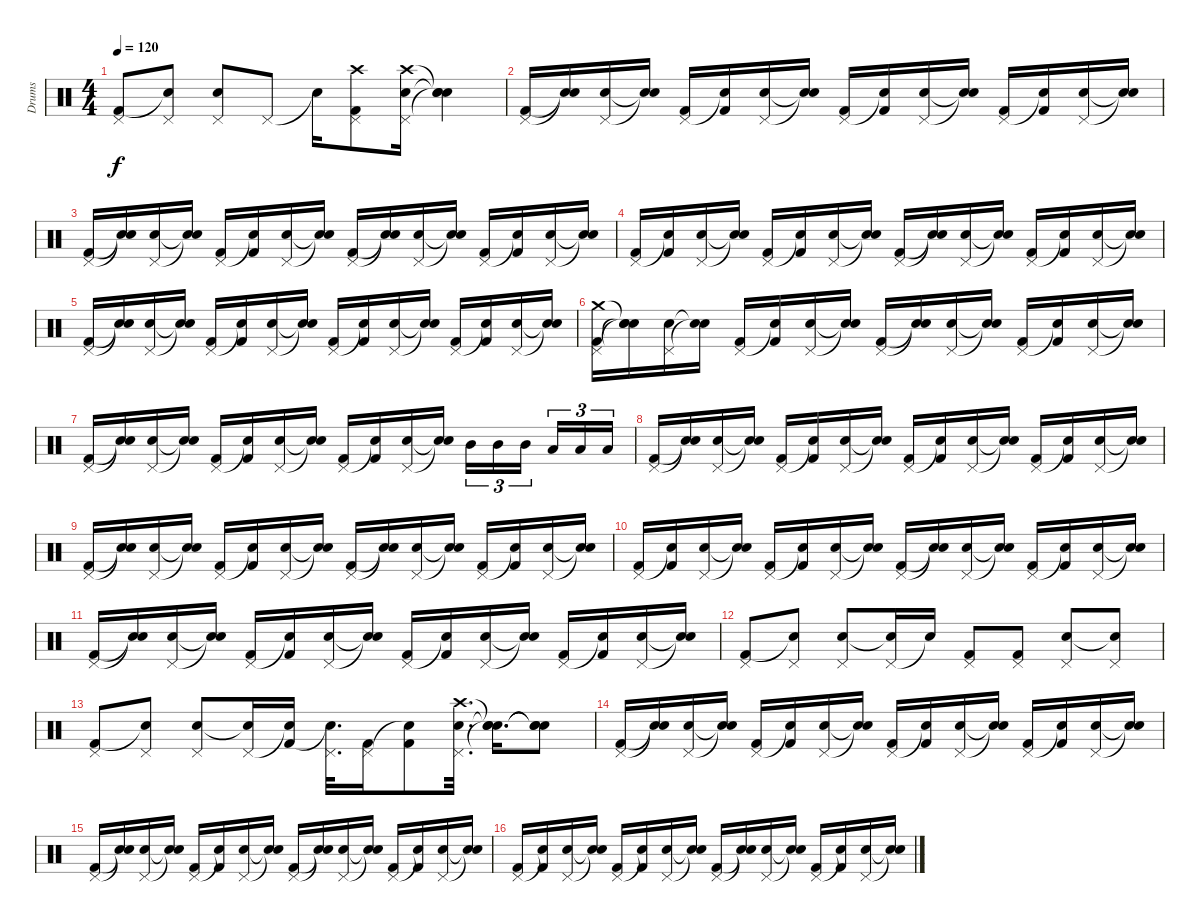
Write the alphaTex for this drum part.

\track ("Drums" "Drums") {instrument percussion}
\staff {score}
\articulation defaults
\ts (4 4)
\tempo 120
\clef neutral
\ks c
("Pedal Hi-Hat (hit)" "Kick (hit) 2").8{dy f} ("Pedal Hi-Hat (hit)" "Snare (hit)"{t}).8 ("Pedal Hi-Hat (hit)" "Snare (hit) 2").8 "Pedal Hi-Hat (hit)".8 "Snare (hit)"{t}.16 ("Pedal Hi-Hat (hit)" "Crash high (hit)" "Kick (hit) 2").8 ("Pedal Hi-Hat (hit)" "Crash high (hit)" "Snare (hit) 2").16 ("Snare (hit)"{t} "Snare (hit)"{t} "Snare (hit)"{t}).4 |
("Pedal Hi-Hat (hit)" "Kick (hit) 2").16 ("Snare (hit)"{t} "Snare (hit)"{t}).16 ("Pedal Hi-Hat (hit)" "Snare (hit) 2").16 ("Snare (hit)"{t} "Snare (hit)"{t}).16 ("Pedal Hi-Hat (hit)" "Kick (hit) 2").16 ("Snare (hit)"{t} "Kick (hit) 2").16 ("Pedal Hi-Hat (hit)" "Snare (hit) 2").16 ("Snare (hit)"{t} "Snare (hit)"{t}).16 ("Pedal Hi-Hat (hit)" "Kick (hit) 2").16 ("Snare (hit)"{t} "Kick (hit) 2").16 ("Pedal Hi-Hat (hit)" "Snare (hit) 2").16 ("Snare (hit)"{t} "Snare (hit)"{t}).16 ("Pedal Hi-Hat (hit)" "Kick (hit) 2").16 ("Snare (hit)"{t} "Kick (hit) 2").16 ("Pedal Hi-Hat (hit)" "Snare (hit) 2").16 ("Snare (hit)"{t} "Snare (hit)"{t}).16 |
("Pedal Hi-Hat (hit)" "Kick (hit) 2").16 ("Snare (hit)"{t} "Snare (hit)"{t}).16 ("Pedal Hi-Hat (hit)" "Snare (hit) 2").16 ("Snare (hit)"{t} "Snare (hit)"{t}).16 ("Pedal Hi-Hat (hit)" "Kick (hit) 2").16 ("Snare (hit)"{t} "Kick (hit) 2").16 ("Pedal Hi-Hat (hit)" "Snare (hit) 2").16 ("Snare (hit)"{t} "Snare (hit)"{t}).16 ("Pedal Hi-Hat (hit)" "Kick (hit) 2").16 ("Snare (hit)"{t} "Snare (hit)"{t}).16 ("Pedal Hi-Hat (hit)" "Snare (hit) 2").16 ("Snare (hit)"{t} "Snare (hit)"{t}).16 ("Pedal Hi-Hat (hit)" "Kick (hit) 2").16 ("Snare (hit)"{t} "Kick (hit) 2").16 ("Pedal Hi-Hat (hit)" "Snare (hit) 2").16 ("Snare (hit)"{t} "Snare (hit)"{t}).16 |
("Pedal Hi-Hat (hit)" "Kick (hit) 2").16 ("Snare (hit)"{t} "Kick (hit) 2").16 ("Pedal Hi-Hat (hit)" "Snare (hit) 2").16 ("Snare (hit)"{t} "Snare (hit)"{t}).16 ("Pedal Hi-Hat (hit)" "Kick (hit) 2").16 ("Snare (hit)"{t} "Kick (hit) 2").16 ("Pedal Hi-Hat (hit)" "Snare (hit) 2").16 ("Snare (hit)"{t} "Snare (hit)"{t}).16 ("Pedal Hi-Hat (hit)" "Kick (hit) 2").16 ("Snare (hit)"{t} "Snare (hit)"{t}).16 ("Pedal Hi-Hat (hit)" "Snare (hit) 2").16 ("Snare (hit)"{t} "Snare (hit)"{t}).16 ("Pedal Hi-Hat (hit)" "Kick (hit) 2").16 ("Snare (hit)"{t} "Kick (hit) 2").16 ("Pedal Hi-Hat (hit)" "Snare (hit) 2").16 ("Snare (hit)"{t} "Snare (hit)"{t}).16 |
("Pedal Hi-Hat (hit)" "Kick (hit) 2").16 ("Snare (hit)"{t} "Snare (hit)"{t}).16 ("Pedal Hi-Hat (hit)" "Snare (hit) 2").16 ("Snare (hit)"{t} "Snare (hit)"{t}).16 ("Pedal Hi-Hat (hit)" "Kick (hit) 2").16 ("Snare (hit)"{t} "Kick (hit) 2").16 ("Pedal Hi-Hat (hit)" "Snare (hit) 2").16 ("Snare (hit)"{t} "Snare (hit)"{t}).16 ("Pedal Hi-Hat (hit)" "Kick (hit) 2").16 ("Snare (hit)"{t} "Kick (hit) 2").16 ("Pedal Hi-Hat (hit)" "Snare (hit) 2").16 ("Snare (hit)"{t} "Snare (hit)"{t}).16 ("Pedal Hi-Hat (hit)" "Kick (hit) 2").16 ("Snare (hit)"{t} "Kick (hit) 2").16 ("Pedal Hi-Hat (hit)" "Snare (hit) 2").16 ("Snare (hit)"{t} "Snare (hit)"{t}).16 |
("Pedal Hi-Hat (hit)" "Crash medium (hit)" "Kick (hit) 2").16 ("Snare (hit)"{t} "Snare (hit)"{t} "Snare (hit)"{t}).16 ("Pedal Hi-Hat (hit)" "Snare (hit) 2").16 ("Snare (hit)"{t} "Snare (hit)"{t}).16 ("Pedal Hi-Hat (hit)" "Kick (hit) 2").16 ("Snare (hit)"{t} "Kick (hit) 2").16 ("Pedal Hi-Hat (hit)" "Snare (hit) 2").16 ("Snare (hit)"{t} "Snare (hit)"{t}).16 ("Pedal Hi-Hat (hit)" "Kick (hit) 2").16 ("Snare (hit)"{t} "Snare (hit)"{t}).16 ("Pedal Hi-Hat (hit)" "Snare (hit) 2").16 ("Snare (hit)"{t} "Snare (hit)"{t}).16 ("Pedal Hi-Hat (hit)" "Kick (hit) 2").16 ("Snare (hit)"{t} "Kick (hit) 2").16 ("Pedal Hi-Hat (hit)" "Snare (hit) 2").16 ("Snare (hit)"{t} "Snare (hit)"{t}).16 |
("Pedal Hi-Hat (hit)" "Kick (hit) 2").16 ("Snare (hit)"{t} "Snare (hit)"{t}).16 ("Pedal Hi-Hat (hit)" "Snare (hit) 2").16 ("Snare (hit)"{t} "Snare (hit)"{t}).16 ("Pedal Hi-Hat (hit)" "Kick (hit) 2").16 ("Snare (hit)"{t} "Kick (hit) 2").16 ("Pedal Hi-Hat (hit)" "Snare (hit) 2").16 ("Snare (hit)"{t} "Snare (hit)"{t}).16 ("Pedal Hi-Hat (hit)" "Kick (hit) 2").16 ("Snare (hit)"{t} "Kick (hit) 2").16 ("Pedal Hi-Hat (hit)" "Snare (hit) 2").16 ("Snare (hit)"{t} "Snare (hit)"{t}).16 "Mid Tom (hit)".16{tu (3 2)} "Mid Tom (hit)".16{tu (3 2)} "Mid Tom (hit)".16{tu (3 2)} "Low Tom (hit)".16{tu (3 2)} "Low Tom (hit)".16{tu (3 2)} "Low Tom (hit)".16{tu (3 2)} |
("Pedal Hi-Hat (hit)" "Kick (hit) 2").16 ("Snare (hit)"{t} "Snare (hit)"{t}).16 ("Pedal Hi-Hat (hit)" "Snare (hit) 2").16 ("Snare (hit)"{t} "Snare (hit)"{t}).16 ("Pedal Hi-Hat (hit)" "Kick (hit) 2").16 ("Snare (hit)"{t} "Kick (hit) 2").16 ("Pedal Hi-Hat (hit)" "Snare (hit) 2").16 ("Snare (hit)"{t} "Snare (hit)"{t}).16 ("Pedal Hi-Hat (hit)" "Kick (hit) 2").16 ("Snare (hit)"{t} "Kick (hit) 2").16 ("Pedal Hi-Hat (hit)" "Snare (hit) 2").16 ("Snare (hit)"{t} "Snare (hit)"{t}).16 ("Pedal Hi-Hat (hit)" "Kick (hit) 2").16 ("Snare (hit)"{t} "Kick (hit) 2").16 ("Pedal Hi-Hat (hit)" "Snare (hit) 2").16 ("Snare (hit)"{t} "Snare (hit)"{t}).16 |
("Pedal Hi-Hat (hit)" "Kick (hit) 2").16 ("Snare (hit)"{t} "Snare (hit)"{t}).16 ("Pedal Hi-Hat (hit)" "Snare (hit) 2").16 ("Snare (hit)"{t} "Snare (hit)"{t}).16 ("Pedal Hi-Hat (hit)" "Kick (hit) 2").16 ("Snare (hit)"{t} "Kick (hit) 2").16 ("Pedal Hi-Hat (hit)" "Snare (hit) 2").16 ("Snare (hit)"{t} "Snare (hit)"{t}).16 ("Pedal Hi-Hat (hit)" "Kick (hit) 2").16 ("Snare (hit)"{t} "Snare (hit)"{t}).16 ("Pedal Hi-Hat (hit)" "Snare (hit) 2").16 ("Snare (hit)"{t} "Snare (hit)"{t}).16 ("Pedal Hi-Hat (hit)" "Kick (hit) 2").16 ("Snare (hit)"{t} "Kick (hit) 2").16 ("Pedal Hi-Hat (hit)" "Snare (hit) 2").16 ("Snare (hit)"{t} "Snare (hit)"{t}).16 |
("Pedal Hi-Hat (hit)" "Kick (hit) 2").16 ("Snare (hit)"{t} "Kick (hit) 2").16 ("Pedal Hi-Hat (hit)" "Snare (hit) 2").16 ("Snare (hit)"{t} "Snare (hit)"{t}).16 ("Pedal Hi-Hat (hit)" "Kick (hit) 2").16 ("Snare (hit)"{t} "Kick (hit) 2").16 ("Pedal Hi-Hat (hit)" "Snare (hit) 2").16 ("Snare (hit)"{t} "Snare (hit)"{t}).16 ("Pedal Hi-Hat (hit)" "Kick (hit) 2").16 ("Snare (hit)"{t} "Snare (hit)"{t}).16 ("Pedal Hi-Hat (hit)" "Snare (hit) 2").16 ("Snare (hit)"{t} "Snare (hit)"{t}).16 ("Pedal Hi-Hat (hit)" "Kick (hit) 2").16 ("Snare (hit)"{t} "Kick (hit) 2").16 ("Pedal Hi-Hat (hit)" "Snare (hit) 2").16 ("Snare (hit)"{t} "Snare (hit)"{t}).16 |
("Pedal Hi-Hat (hit)" "Kick (hit) 2").16 ("Snare (hit)"{t} "Snare (hit)"{t}).16 ("Pedal Hi-Hat (hit)" "Snare (hit) 2").16 ("Snare (hit)"{t} "Snare (hit)"{t}).16 ("Pedal Hi-Hat (hit)" "Kick (hit) 2").16 ("Snare (hit)"{t} "Kick (hit) 2").16 ("Pedal Hi-Hat (hit)" "Snare (hit) 2").16 ("Snare (hit)"{t} "Snare (hit)"{t}).16 ("Pedal Hi-Hat (hit)" "Kick (hit) 2").16 ("Snare (hit)"{t} "Kick (hit) 2").16 ("Pedal Hi-Hat (hit)" "Snare (hit) 2").16 ("Snare (hit)"{t} "Snare (hit)"{t}).16 ("Pedal Hi-Hat (hit)" "Kick (hit) 2").16 ("Snare (hit)"{t} "Kick (hit) 2").16 ("Pedal Hi-Hat (hit)" "Snare (hit) 2").16 ("Snare (hit)"{t} "Snare (hit)"{t}).16 |
("Pedal Hi-Hat (hit)" "Kick (hit) 2").8 ("Pedal Hi-Hat (hit)" "Snare (hit)"{t}).8 ("Pedal Hi-Hat (hit)" "Snare (hit) 2").8 ("Pedal Hi-Hat (hit)" "Snare (hit)"{t}).16 "Snare (hit)"{t}.16 ("Pedal Hi-Hat (hit)" "Kick (hit) 2").8 ("Pedal Hi-Hat (hit)" "Kick (hit) 2").8 ("Pedal Hi-Hat (hit)" "Snare (hit) 2").8 ("Pedal Hi-Hat (hit)" "Snare (hit)"{t}).8 |
("Pedal Hi-Hat (hit)" "Kick (hit) 2").8 ("Pedal Hi-Hat (hit)" "Snare (hit)"{t}).8 ("Pedal Hi-Hat (hit)" "Snare (hit) 2").8 ("Pedal Hi-Hat (hit)" "Snare (hit)"{t}).16 ("Snare (hit)"{t} "Kick (hit) 2").16 ("Pedal Hi-Hat (hit)" "Snare (hit)"{t}).32{d} ("Pedal Hi-Hat (hit)" "Kick (hit) 2").16 ("Snare (hit)"{t} "Kick (hit) 2").8 ("Pedal Hi-Hat (hit)" "Crash high (hit)" "Snare (hit) 2").32{d} ("Snare (hit)"{t} "Snare (hit)"{t} "Snare (hit)"{t}).16{d} ("Snare (hit)"{t} "Snare (hit)"{t} "Snare (hit)"{t}).8 |
("Pedal Hi-Hat (hit)" "Kick (hit) 2").16 ("Snare (hit)"{t} "Snare (hit)"{t}).16 ("Pedal Hi-Hat (hit)" "Snare (hit) 2").16 ("Snare (hit)"{t} "Snare (hit)"{t}).16 ("Pedal Hi-Hat (hit)" "Kick (hit) 2").16 ("Snare (hit)"{t} "Kick (hit) 2").16 ("Pedal Hi-Hat (hit)" "Snare (hit) 2").16 ("Snare (hit)"{t} "Snare (hit)"{t}).16 ("Pedal Hi-Hat (hit)" "Kick (hit) 2").16 ("Snare (hit)"{t} "Kick (hit) 2").16 ("Pedal Hi-Hat (hit)" "Snare (hit) 2").16 ("Snare (hit)"{t} "Snare (hit)"{t}).16 ("Pedal Hi-Hat (hit)" "Kick (hit) 2").16 ("Snare (hit)"{t} "Kick (hit) 2").16 ("Pedal Hi-Hat (hit)" "Snare (hit) 2").16 ("Snare (hit)"{t} "Snare (hit)"{t}).16 |
("Pedal Hi-Hat (hit)" "Kick (hit) 2").16 ("Snare (hit)"{t} "Snare (hit)"{t}).16 ("Pedal Hi-Hat (hit)" "Snare (hit) 2").16 ("Snare (hit)"{t} "Snare (hit)"{t}).16 ("Pedal Hi-Hat (hit)" "Kick (hit) 2").16 ("Snare (hit)"{t} "Kick (hit) 2").16 ("Pedal Hi-Hat (hit)" "Snare (hit) 2").16 ("Snare (hit)"{t} "Snare (hit)"{t}).16 ("Pedal Hi-Hat (hit)" "Kick (hit) 2").16 ("Snare (hit)"{t} "Snare (hit)"{t}).16 ("Pedal Hi-Hat (hit)" "Snare (hit) 2").16 ("Snare (hit)"{t} "Snare (hit)"{t}).16 ("Pedal Hi-Hat (hit)" "Kick (hit) 2").16 ("Snare (hit)"{t} "Kick (hit) 2").16 ("Pedal Hi-Hat (hit)" "Snare (hit) 2").16 ("Snare (hit)"{t} "Snare (hit)"{t}).16 |
("Pedal Hi-Hat (hit)" "Kick (hit) 2").16 ("Snare (hit)"{t} "Kick (hit) 2").16 ("Pedal Hi-Hat (hit)" "Snare (hit) 2").16 ("Snare (hit)"{t} "Snare (hit)"{t}).16 ("Pedal Hi-Hat (hit)" "Kick (hit) 2").16 ("Snare (hit)"{t} "Kick (hit) 2").16 ("Pedal Hi-Hat (hit)" "Snare (hit) 2").16 ("Snare (hit)"{t} "Snare (hit)"{t}).16 ("Pedal Hi-Hat (hit)" "Kick (hit) 2").16 ("Snare (hit)"{t} "Snare (hit)"{t}).16 ("Pedal Hi-Hat (hit)" "Snare (hit) 2").16 ("Snare (hit)"{t} "Snare (hit)"{t}).16 ("Pedal Hi-Hat (hit)" "Kick (hit) 2").16 ("Snare (hit)"{t} "Kick (hit) 2").16 ("Pedal Hi-Hat (hit)" "Snare (hit) 2").16 ("Snare (hit)"{t} "Snare (hit)"{t}).16
